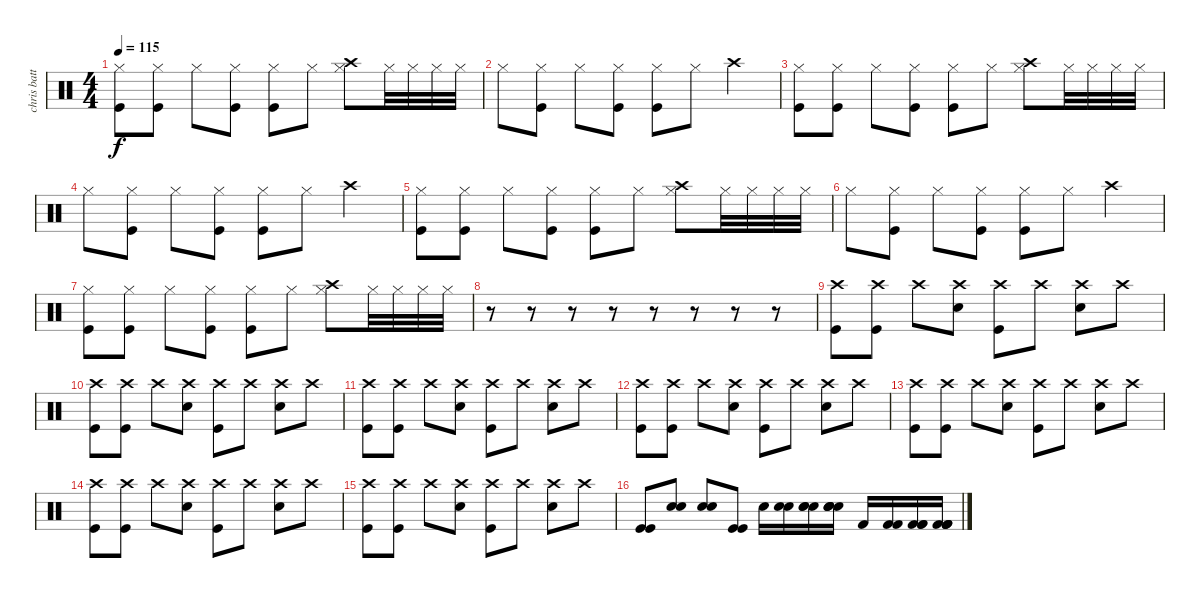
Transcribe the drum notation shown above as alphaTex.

\track ("chris batterie" "chris batt") {instrument percussion}
\staff {score}
\articulation defaults
\ts (4 4)
\tempo 115
\clef neutral
\ks c
("Hi-Hat (closed)" "Kick (hit)").8{dy f} ("Hi-Hat (closed)" "Kick (hit)").8 "Hi-Hat (closed)".8 ("Hi-Hat (closed)" "Kick (hit)").8 ("Hi-Hat (closed)" "Kick (hit)").8 "Hi-Hat (closed)".8 ("Hi-Hat (closed)" "Crash high (hit)").8 "Hi-Hat (closed)".32 "Hi-Hat (closed)".32 "Hi-Hat (closed)".32 "Hi-Hat (closed)".32 |
"Hi-Hat (closed)".8 ("Hi-Hat (closed)" "Kick (hit)").8 "Hi-Hat (closed)".8 ("Hi-Hat (closed)" "Kick (hit)").8 ("Hi-Hat (closed)" "Kick (hit)").8 "Hi-Hat (closed)".8 "Crash high (hit)".4 |
("Hi-Hat (closed)" "Kick (hit)").8 ("Hi-Hat (closed)" "Kick (hit)").8 "Hi-Hat (closed)".8 ("Hi-Hat (closed)" "Kick (hit)").8 ("Hi-Hat (closed)" "Kick (hit)").8 "Hi-Hat (closed)".8 ("Hi-Hat (closed)" "Crash high (hit)").8 "Hi-Hat (closed)".32 "Hi-Hat (closed)".32 "Hi-Hat (closed)".32 "Hi-Hat (closed)".32 |
"Hi-Hat (closed)".8 ("Hi-Hat (closed)" "Kick (hit)").8 "Hi-Hat (closed)".8 ("Hi-Hat (closed)" "Kick (hit)").8 ("Hi-Hat (closed)" "Kick (hit)").8 "Hi-Hat (closed)".8 "Crash high (hit)".4 |
("Hi-Hat (closed)" "Kick (hit)").8 ("Hi-Hat (closed)" "Kick (hit)").8 "Hi-Hat (closed)".8 ("Hi-Hat (closed)" "Kick (hit)").8 ("Hi-Hat (closed)" "Kick (hit)").8 "Hi-Hat (closed)".8 ("Hi-Hat (closed)" "Crash high (hit)").8 "Hi-Hat (closed)".32 "Hi-Hat (closed)".32 "Hi-Hat (closed)".32 "Hi-Hat (closed)".32 |
"Hi-Hat (closed)".8 ("Hi-Hat (closed)" "Kick (hit)").8 "Hi-Hat (closed)".8 ("Hi-Hat (closed)" "Kick (hit)").8 ("Hi-Hat (closed)" "Kick (hit)").8 "Hi-Hat (closed)".8 "Crash high (hit)".4 |
("Hi-Hat (closed)" "Kick (hit)").8 ("Hi-Hat (closed)" "Kick (hit)").8 "Hi-Hat (closed)".8 ("Hi-Hat (closed)" "Kick (hit)").8 ("Hi-Hat (closed)" "Kick (hit)").8 "Hi-Hat (closed)".8 ("Hi-Hat (closed)" "Crash high (hit)").8 "Hi-Hat (closed)".32 "Hi-Hat (closed)".32 "Hi-Hat (closed)".32 "Hi-Hat (closed)".32 |
r.8 r.8 r.8 r.8 r.8 r.8 r.8 r.8 |
("Crash high (hit)" "Kick (hit)").8 ("Crash high (hit)" "Kick (hit)").8 "Crash high (hit)".8 ("Crash high (hit)" "Snare (hit) 2").8 ("Crash high (hit)" "Kick (hit)").8 "Crash high (hit)".8 ("Crash high (hit)" "Snare (hit) 2").8 "Crash high (hit)".8 |
("Crash high (hit)" "Kick (hit)").8 ("Crash high (hit)" "Kick (hit)").8 "Crash high (hit)".8 ("Crash high (hit)" "Snare (hit) 2").8 ("Crash high (hit)" "Kick (hit)").8 "Crash high (hit)".8 ("Crash high (hit)" "Snare (hit) 2").8 "Crash high (hit)".8 |
("Crash high (hit)" "Kick (hit)").8 ("Crash high (hit)" "Kick (hit)").8 "Crash high (hit)".8 ("Crash high (hit)" "Snare (hit) 2").8 ("Crash high (hit)" "Kick (hit)").8 "Crash high (hit)".8 ("Crash high (hit)" "Snare (hit) 2").8 "Crash high (hit)".8 |
("Crash high (hit)" "Kick (hit)").8 ("Crash high (hit)" "Kick (hit)").8 "Crash high (hit)".8 ("Crash high (hit)" "Snare (hit) 2").8 ("Crash high (hit)" "Kick (hit)").8 "Crash high (hit)".8 ("Crash high (hit)" "Snare (hit) 2").8 "Crash high (hit)".8 |
("Crash high (hit)" "Kick (hit)").8 ("Crash high (hit)" "Kick (hit)").8 "Crash high (hit)".8 ("Crash high (hit)" "Snare (hit) 2").8 ("Crash high (hit)" "Kick (hit)").8 "Crash high (hit)".8 ("Crash high (hit)" "Snare (hit) 2").8 "Crash high (hit)".8 |
("Crash high (hit)" "Kick (hit)").8 ("Crash high (hit)" "Kick (hit)").8 "Crash high (hit)".8 ("Crash high (hit)" "Snare (hit) 2").8 ("Crash high (hit)" "Kick (hit)").8 "Crash high (hit)".8 ("Crash high (hit)" "Snare (hit) 2").8 "Crash high (hit)".8 |
("Crash high (hit)" "Kick (hit)").8 ("Crash high (hit)" "Kick (hit)").8 "Crash high (hit)".8 ("Crash high (hit)" "Snare (hit) 2").8 ("Crash high (hit)" "Kick (hit)").8 "Crash high (hit)".8 ("Crash high (hit)" "Snare (hit) 2").8 "Crash high (hit)".8 |
("Kick (hit)" "Kick (hit)").8 ("Snare (hit) 2" "Snare (hit) 2").8 ("Snare (hit) 2" "Snare (hit) 2").8 ("Kick (hit)" "Kick (hit)").8 "Snare (hit) 2".16 ("Snare (hit) 2" "Snare (hit) 2").16 ("Snare (hit) 2" "Snare (hit) 2" "Snare (hit) 2").16 ("Snare (hit) 2" "Snare (hit) 2" "Snare (hit) 2" "Snare (hit) 2").16 "Kick (hit) 2".16 ("Kick (hit) 2" "Kick (hit) 2").16 ("Kick (hit) 2" "Kick (hit) 2" "Kick (hit) 2").16 ("Kick (hit) 2" "Kick (hit) 2" "Kick (hit) 2" "Kick (hit) 2").16
